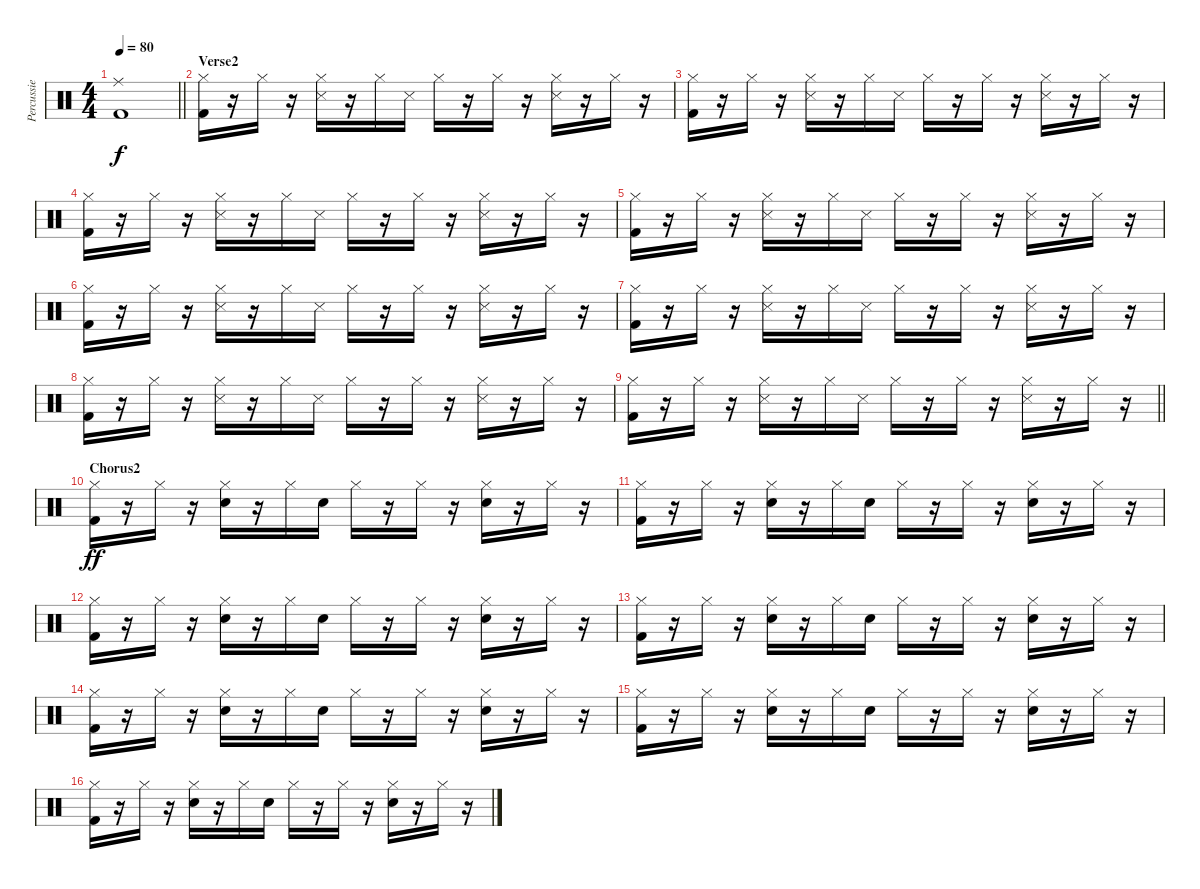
\track ("Percussie" "Percussie") {instrument percussion}
\staff {score}
\articulation defaults
\ts (4 4)
\tempo 80
\clef neutral
\barLineRight lightlight
\ks c
("Ride (middle)" "Kick (hit) 2").1{dy f} |
\section ("" "Verse2")
("Kick (hit) 2" "Hi-Hat (closed)").16 r.16 "Hi-Hat (closed)".16 r.16 ("Snare (side stick) 3" "Hi-Hat (closed)").16 r.16 "Hi-Hat (closed)".16 "Snare (side stick) 3".16 "Hi-Hat (closed)".16 r.16 "Hi-Hat (closed)".16 r.16 ("Snare (side stick) 3" "Hi-Hat (closed)").16 r.16 "Hi-Hat (closed)".16 r.16 |
("Kick (hit) 2" "Hi-Hat (closed)").16 r.16 "Hi-Hat (closed)".16 r.16 ("Snare (side stick) 3" "Hi-Hat (closed)").16 r.16 "Hi-Hat (closed)".16 "Snare (side stick) 3".16 "Hi-Hat (closed)".16 r.16 "Hi-Hat (closed)".16 r.16 ("Snare (side stick) 3" "Hi-Hat (closed)").16 r.16 "Hi-Hat (closed)".16 r.16 |
("Kick (hit) 2" "Hi-Hat (closed)").16 r.16 "Hi-Hat (closed)".16 r.16 ("Snare (side stick) 3" "Hi-Hat (closed)").16 r.16 "Hi-Hat (closed)".16 "Snare (side stick) 3".16 "Hi-Hat (closed)".16 r.16 "Hi-Hat (closed)".16 r.16 ("Snare (side stick) 3" "Hi-Hat (closed)").16 r.16 "Hi-Hat (closed)".16 r.16 |
("Kick (hit) 2" "Hi-Hat (closed)").16 r.16 "Hi-Hat (closed)".16 r.16 ("Snare (side stick) 3" "Hi-Hat (closed)").16 r.16 "Hi-Hat (closed)".16 "Snare (side stick) 3".16 "Hi-Hat (closed)".16 r.16 "Hi-Hat (closed)".16 r.16 ("Snare (side stick) 3" "Hi-Hat (closed)").16 r.16 "Hi-Hat (closed)".16 r.16 |
("Kick (hit) 2" "Hi-Hat (closed)").16 r.16 "Hi-Hat (closed)".16 r.16 ("Snare (side stick) 3" "Hi-Hat (closed)").16 r.16 "Hi-Hat (closed)".16 "Snare (side stick) 3".16 "Hi-Hat (closed)".16 r.16 "Hi-Hat (closed)".16 r.16 ("Snare (side stick) 3" "Hi-Hat (closed)").16 r.16 "Hi-Hat (closed)".16 r.16 |
("Kick (hit) 2" "Hi-Hat (closed)").16 r.16 "Hi-Hat (closed)".16 r.16 ("Snare (side stick) 3" "Hi-Hat (closed)").16 r.16 "Hi-Hat (closed)".16 "Snare (side stick) 3".16 "Hi-Hat (closed)".16 r.16 "Hi-Hat (closed)".16 r.16 ("Snare (side stick) 3" "Hi-Hat (closed)").16 r.16 "Hi-Hat (closed)".16 r.16 |
("Kick (hit) 2" "Hi-Hat (closed)").16 r.16 "Hi-Hat (closed)".16 r.16 ("Snare (side stick) 3" "Hi-Hat (closed)").16 r.16 "Hi-Hat (closed)".16 "Snare (side stick) 3".16 "Hi-Hat (closed)".16 r.16 "Hi-Hat (closed)".16 r.16 ("Snare (side stick) 3" "Hi-Hat (closed)").16 r.16 "Hi-Hat (closed)".16 r.16 |
\barLineRight lightlight
("Kick (hit) 2" "Hi-Hat (closed)").16 r.16 "Hi-Hat (closed)".16 r.16 ("Snare (side stick) 3" "Hi-Hat (closed)").16 r.16 "Hi-Hat (closed)".16 "Snare (side stick) 3".16 "Hi-Hat (closed)".16 r.16 "Hi-Hat (closed)".16 r.16 ("Snare (side stick) 3" "Hi-Hat (closed)").16 r.16 "Hi-Hat (closed)".16 r.16 |
\section ("" "Chorus2")
("Kick (hit) 2" "Hi-Hat (closed)").16{dy ff} r.16 "Hi-Hat (closed)".16 r.16 ("Electric Snare (hit)" "Hi-Hat (closed)").16 r.16 "Hi-Hat (closed)".16 "Electric Snare (hit)".16 "Hi-Hat (closed)".16 r.16 "Hi-Hat (closed)".16 r.16 ("Electric Snare (hit)" "Hi-Hat (closed)").16 r.16 "Hi-Hat (closed)".16 r.16 |
("Kick (hit) 2" "Hi-Hat (closed)").16 r.16 "Hi-Hat (closed)".16 r.16 ("Electric Snare (hit)" "Hi-Hat (closed)").16 r.16 "Hi-Hat (closed)".16 "Electric Snare (hit)".16 "Hi-Hat (closed)".16 r.16 "Hi-Hat (closed)".16 r.16 ("Electric Snare (hit)" "Hi-Hat (closed)").16 r.16 "Hi-Hat (closed)".16 r.16 |
("Kick (hit) 2" "Hi-Hat (closed)").16 r.16 "Hi-Hat (closed)".16 r.16 ("Electric Snare (hit)" "Hi-Hat (closed)").16 r.16 "Hi-Hat (closed)".16 "Electric Snare (hit)".16 "Hi-Hat (closed)".16 r.16 "Hi-Hat (closed)".16 r.16 ("Electric Snare (hit)" "Hi-Hat (closed)").16 r.16 "Hi-Hat (closed)".16 r.16 |
("Kick (hit) 2" "Hi-Hat (closed)").16 r.16 "Hi-Hat (closed)".16 r.16 ("Electric Snare (hit)" "Hi-Hat (closed)").16 r.16 "Hi-Hat (closed)".16 "Electric Snare (hit)".16 "Hi-Hat (closed)".16 r.16 "Hi-Hat (closed)".16 r.16 ("Electric Snare (hit)" "Hi-Hat (closed)").16 r.16 "Hi-Hat (closed)".16 r.16 |
("Kick (hit) 2" "Hi-Hat (closed)").16 r.16 "Hi-Hat (closed)".16 r.16 ("Electric Snare (hit)" "Hi-Hat (closed)").16 r.16 "Hi-Hat (closed)".16 "Electric Snare (hit)".16 "Hi-Hat (closed)".16 r.16 "Hi-Hat (closed)".16 r.16 ("Electric Snare (hit)" "Hi-Hat (closed)").16 r.16 "Hi-Hat (closed)".16 r.16 |
("Kick (hit) 2" "Hi-Hat (closed)").16 r.16 "Hi-Hat (closed)".16 r.16 ("Electric Snare (hit)" "Hi-Hat (closed)").16 r.16 "Hi-Hat (closed)".16 "Electric Snare (hit)".16 "Hi-Hat (closed)".16 r.16 "Hi-Hat (closed)".16 r.16 ("Electric Snare (hit)" "Hi-Hat (closed)").16 r.16 "Hi-Hat (closed)".16 r.16 |
("Kick (hit) 2" "Hi-Hat (closed)").16 r.16 "Hi-Hat (closed)".16 r.16 ("Electric Snare (hit)" "Hi-Hat (closed)").16 r.16 "Hi-Hat (closed)".16 "Electric Snare (hit)".16 "Hi-Hat (closed)".16 r.16 "Hi-Hat (closed)".16 r.16 ("Electric Snare (hit)" "Hi-Hat (closed)").16 r.16 "Hi-Hat (closed)".16 r.16
